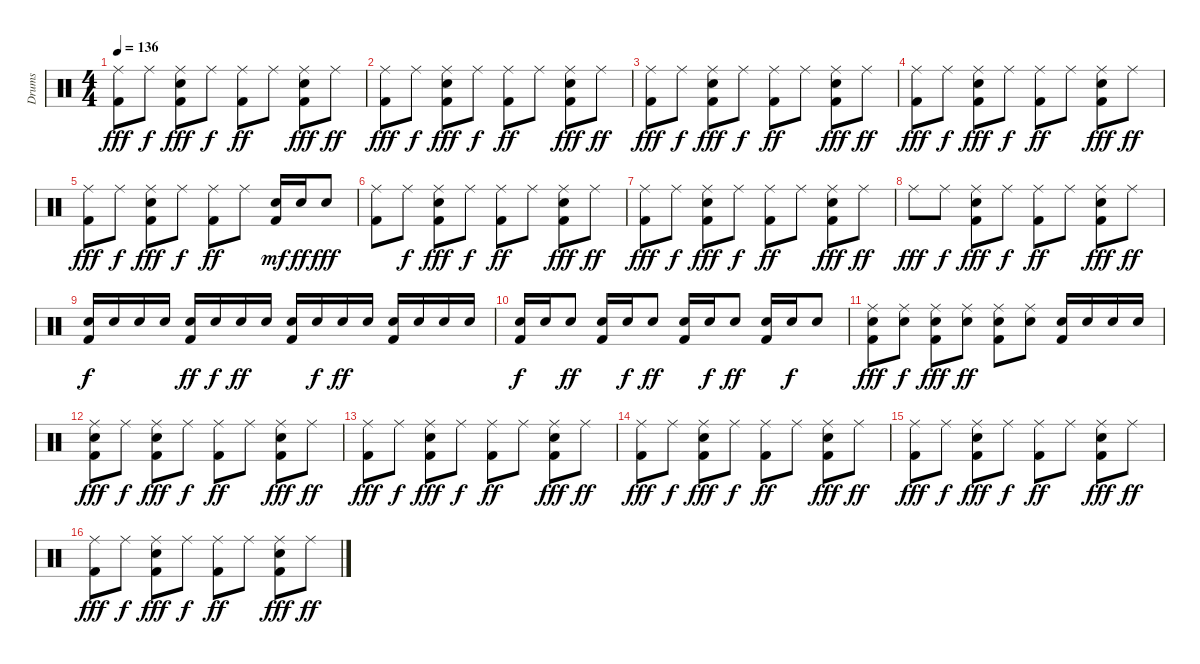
\track ("Drums" "Drums") {instrument percussion}
\staff {score}
\articulation defaults
\ts (4 4)
\tempo 136
\clef neutral
\ks c
("Kick (hit) 2" "Ride (middle)").8{dy fff} "Ride (middle)".8{dy f} ("Kick (hit) 2" "Electric Snare (hit)" "Ride (middle)").8{dy fff} "Ride (middle)".8{dy f} ("Kick (hit) 2" "Ride (middle)").8{dy ff} "Ride (middle)".8 ("Kick (hit) 2" "Electric Snare (hit)" "Ride (middle)").8{dy fff} "Ride (middle)".8{dy ff} |
("Kick (hit) 2" "Ride (middle)").8{dy fff} "Ride (middle)".8{dy f} ("Kick (hit) 2" "Electric Snare (hit)" "Ride (middle)").8{dy fff} "Ride (middle)".8{dy f} ("Kick (hit) 2" "Ride (middle)").8{dy ff} "Ride (middle)".8 ("Kick (hit) 2" "Electric Snare (hit)" "Ride (middle)").8{dy fff} "Ride (middle)".8{dy ff} |
("Kick (hit) 2" "Ride (middle)").8{dy fff} "Ride (middle)".8{dy f} ("Kick (hit) 2" "Electric Snare (hit)" "Ride (middle)").8{dy fff} "Ride (middle)".8{dy f} ("Kick (hit) 2" "Ride (middle)").8{dy ff} "Ride (middle)".8 ("Kick (hit) 2" "Electric Snare (hit)" "Ride (middle)").8{dy fff} "Ride (middle)".8{dy ff} |
("Kick (hit) 2" "Ride (middle)").8{dy fff} "Ride (middle)".8{dy f} ("Kick (hit) 2" "Electric Snare (hit)" "Ride (middle)").8{dy fff} "Ride (middle)".8{dy f} ("Kick (hit) 2" "Ride (middle)").8{dy ff} "Ride (middle)".8 ("Kick (hit) 2" "Electric Snare (hit)" "Ride (middle)").8{dy fff} "Ride (middle)".8{dy ff} |
("Kick (hit) 2" "Ride (middle)").8{dy fff} "Ride (middle)".8{dy f} ("Kick (hit) 2" "Electric Snare (hit)" "Ride (middle)").8{dy fff} "Ride (middle)".8{dy f} ("Kick (hit) 2" "Ride (middle)").8{dy ff} "Ride (middle)".8 ("Kick (hit) 2" "Electric Snare (hit)").16{dy mf} "Electric Snare (hit)".16{dy ff} "Electric Snare (hit)".8{dy fff} |
("Kick (hit) 2" "Ride (middle)").8 "Ride (middle)".8{dy f} ("Kick (hit) 2" "Electric Snare (hit)" "Ride (middle)").8{dy fff} "Ride (middle)".8{dy f} ("Kick (hit) 2" "Ride (middle)").8{dy ff} "Ride (middle)".8 ("Kick (hit) 2" "Electric Snare (hit)" "Ride (middle)").8{dy fff} "Ride (middle)".8{dy ff} |
("Kick (hit) 2" "Ride (middle)").8{dy fff} "Ride (middle)".8{dy f} ("Kick (hit) 2" "Electric Snare (hit)" "Ride (middle)").8{dy fff} "Ride (middle)".8{dy f} ("Kick (hit) 2" "Ride (middle)").8{dy ff} "Ride (middle)".8 ("Kick (hit) 2" "Electric Snare (hit)" "Ride (middle)").8{dy fff} "Ride (middle)".8{dy ff} |
"Ride (middle)".8{dy fff} "Ride (middle)".8{dy f} ("Kick (hit) 2" "Electric Snare (hit)" "Ride (middle)").8{dy fff} "Ride (middle)".8{dy f} ("Kick (hit) 2" "Ride (middle)").8{dy ff} "Ride (middle)".8 ("Kick (hit) 2" "Electric Snare (hit)" "Ride (middle)").8{dy fff} "Ride (middle)".8{dy ff} |
("Kick (hit) 2" "Electric Snare (hit)").16{dy f} "Electric Snare (hit)".16 "Electric Snare (hit)".16 "Electric Snare (hit)".16 ("Kick (hit) 2" "Electric Snare (hit)").16{dy ff} "Electric Snare (hit)".16{dy f} "Electric Snare (hit)".16{dy ff} "Electric Snare (hit)".16 ("Kick (hit) 2" "Electric Snare (hit)").16 "Electric Snare (hit)".16{dy f} "Electric Snare (hit)".16{dy ff} "Electric Snare (hit)".16 ("Kick (hit) 2" "Electric Snare (hit)").16 "Electric Snare (hit)".16 "Electric Snare (hit)".16 "Electric Snare (hit)".16 |
("Kick (hit) 2" "Electric Snare (hit)").16{dy f} "Electric Snare (hit)".16 "Electric Snare (hit)".8{dy ff} ("Kick (hit) 2" "Electric Snare (hit)").16 "Electric Snare (hit)".16{dy f} "Electric Snare (hit)".8{dy ff} ("Kick (hit) 2" "Electric Snare (hit)").16 "Electric Snare (hit)".16{dy f} "Electric Snare (hit)".8{dy ff} ("Kick (hit) 2" "Electric Snare (hit)").16 "Electric Snare (hit)".16{dy f} "Electric Snare (hit)".8 |
("Kick (hit) 2" "Electric Snare (hit)" "Ride (middle)").8{dy fff} ("Electric Snare (hit)" "Ride (middle)").8{dy f} ("Kick (hit) 2" "Electric Snare (hit)" "Ride (middle)").8{dy fff} ("Electric Snare (hit)" "Ride (middle)").8{dy ff} ("Kick (hit) 2" "Electric Snare (hit)" "Ride (middle)").8 ("Electric Snare (hit)" "Ride (middle)").8 ("Kick (hit) 2" "Electric Snare (hit)").16 "Electric Snare (hit)".16 "Electric Snare (hit)".16 "Electric Snare (hit)".16 |
("Kick (hit) 2" "Electric Snare (hit)" "Ride (middle)").8{dy fff} "Ride (middle)".8{dy f} ("Kick (hit) 2" "Electric Snare (hit)" "Ride (middle)").8{dy fff} "Ride (middle)".8{dy f} ("Kick (hit) 2" "Ride (middle)").8{dy ff} "Ride (middle)".8 ("Kick (hit) 2" "Electric Snare (hit)" "Ride (middle)").8{dy fff} "Ride (middle)".8{dy ff} |
("Kick (hit) 2" "Ride (middle)").8{dy fff} "Ride (middle)".8{dy f} ("Kick (hit) 2" "Electric Snare (hit)" "Ride (middle)").8{dy fff} "Ride (middle)".8{dy f} ("Kick (hit) 2" "Ride (middle)").8{dy ff} "Ride (middle)".8 ("Kick (hit) 2" "Electric Snare (hit)" "Ride (middle)").8{dy fff} "Ride (middle)".8{dy ff} |
("Kick (hit) 2" "Ride (middle)").8{dy fff} "Ride (middle)".8{dy f} ("Kick (hit) 2" "Electric Snare (hit)" "Ride (middle)").8{dy fff} "Ride (middle)".8{dy f} ("Kick (hit) 2" "Ride (middle)").8{dy ff} "Ride (middle)".8 ("Kick (hit) 2" "Electric Snare (hit)" "Ride (middle)").8{dy fff} "Ride (middle)".8{dy ff} |
("Kick (hit) 2" "Ride (middle)").8{dy fff} "Ride (middle)".8{dy f} ("Kick (hit) 2" "Electric Snare (hit)" "Ride (middle)").8{dy fff} "Ride (middle)".8{dy f} ("Kick (hit) 2" "Ride (middle)").8{dy ff} "Ride (middle)".8 ("Kick (hit) 2" "Electric Snare (hit)" "Ride (middle)").8{dy fff} "Ride (middle)".8{dy ff} |
("Kick (hit) 2" "Ride (middle)").8{dy fff} "Ride (middle)".8{dy f} ("Kick (hit) 2" "Electric Snare (hit)" "Ride (middle)").8{dy fff} "Ride (middle)".8{dy f} ("Kick (hit) 2" "Ride (middle)").8{dy ff} "Ride (middle)".8 ("Kick (hit) 2" "Electric Snare (hit)" "Ride (middle)").8{dy fff} "Ride (middle)".8{dy ff}
